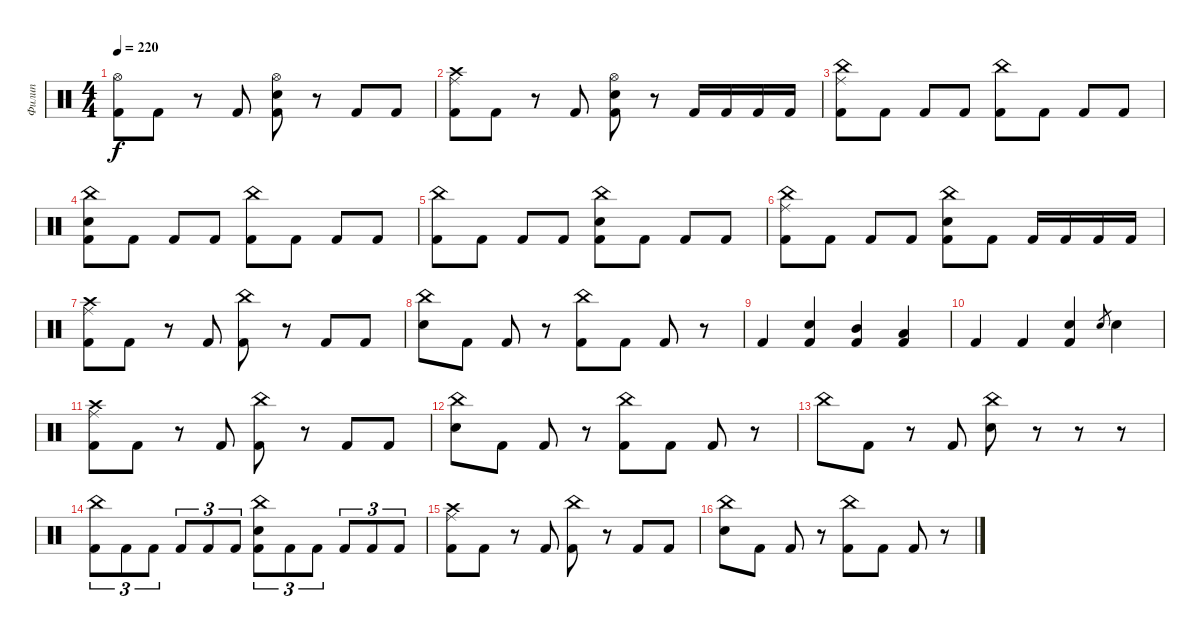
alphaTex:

\track ("Филип" "Филип") {instrument percussion}
\staff {score}
\articulation defaults
\ts (4 4)
\tempo 220
\clef neutral
\ks c
("Hi-Hat (open)" "Kick (hit) 2").8{dy f} "Kick (hit) 2".8 r.8 "Kick (hit) 2".8 ("Hi-Hat (open)" "Electric Snare (hit)" "Kick (hit) 2").8 r.8 "Kick (hit) 2".8 "Kick (hit) 2".8 |
("Ride (middle)" "Crash high (hit)" "Kick (hit) 2").8 "Kick (hit) 2".8 r.8 "Kick (hit) 2".8 ("Hi-Hat (open)" "Electric Snare (hit)" "Kick (hit) 2").8 r.8 "Kick (hit) 2".16 "Kick (hit) 2".16 "Kick (hit) 2".16 "Kick (hit) 2".16 |
("Ride (middle)" "China (hit)" "Kick (hit) 2").8 "Kick (hit) 2".8 "Kick (hit) 2".8 "Kick (hit) 2".8 ("China (hit)" "Kick (hit) 2").8 "Kick (hit) 2".8 "Kick (hit) 2".8 "Kick (hit) 2".8 |
("Kick (hit) 2" "China (hit)" "Electric Snare (hit)").8 "Kick (hit) 2".8 "Kick (hit) 2".8 "Kick (hit) 2".8 ("China (hit)" "Kick (hit) 2").8 "Kick (hit) 2".8 "Kick (hit) 2".8 "Kick (hit) 2".8 |
("China (hit)" "Kick (hit) 2").8 "Kick (hit) 2".8 "Kick (hit) 2".8 "Kick (hit) 2".8 ("China (hit)" "Electric Snare (hit)" "Kick (hit) 2").8 "Kick (hit) 2".8 "Kick (hit) 2".8 "Kick (hit) 2".8 |
("Ride (middle)" "China (hit)" "Kick (hit) 2").8 "Kick (hit) 2".8 "Kick (hit) 2".8 "Kick (hit) 2".8 ("China (hit)" "Electric Snare (hit)" "Kick (hit) 2").8 "Kick (hit) 2".8 "Kick (hit) 2".16 "Kick (hit) 2".16 "Kick (hit) 2".16 "Kick (hit) 2".16 |
("Ride (middle)" "Crash high (hit)" "Kick (hit) 2").8 "Kick (hit) 2".8 r.8 "Kick (hit) 2".8 ("China (hit)" "Kick (hit) 2").8 r.8 "Kick (hit) 2".8 "Kick (hit) 2".8 |
("China (hit)" "Electric Snare (hit)").8 "Kick (hit) 2".8 "Kick (hit) 2".8 r.8 ("China (hit)" "Kick (hit) 2").8 "Kick (hit) 2".8 "Kick (hit) 2".8 r.8 |
"Kick (hit) 2".4 ("Electric Snare (hit)" "Kick (hit) 2").4 ("Mid Tom (hit)" "Kick (hit) 2").4 ("Low Tom (hit)" "Kick (hit) 2").4 |
"Kick (hit) 2".4 "Kick (hit) 2".4 ("Electric Snare (hit)" "Kick (hit) 2").4 "Electric Snare (hit)".8{gr} "Electric Snare (hit)".4 |
("Ride (middle)" "Crash high (hit)" "Kick (hit) 2").8 "Kick (hit) 2".8 r.8 "Kick (hit) 2".8 ("China (hit)" "Kick (hit) 2").8 r.8 "Kick (hit) 2".8 "Kick (hit) 2".8 |
("China (hit)" "Electric Snare (hit)").8 "Kick (hit) 2".8 "Kick (hit) 2".8 r.8 ("China (hit)" "Kick (hit) 2").8 "Kick (hit) 2".8 "Kick (hit) 2".8 r.8 |
"China (hit)".8 "Kick (hit) 2".8 r.8 "Kick (hit) 2".8 ("China (hit)" "Electric Snare (hit)").8 r.8 r.8 r.8 |
("China (hit)" "Kick (hit) 2").8{tu (3 2)} "Kick (hit) 2".8{tu (3 2)} "Kick (hit) 2".8{tu (3 2)} "Kick (hit) 2".8{tu (3 2)} "Kick (hit) 2".8{tu (3 2)} "Kick (hit) 2".8{tu (3 2)} ("China (hit)" "Electric Snare (hit)" "Kick (hit) 2").8{tu (3 2)} "Kick (hit) 2".8{tu (3 2)} "Kick (hit) 2".8{tu (3 2)} "Kick (hit) 2".8{tu (3 2)} "Kick (hit) 2".8{tu (3 2)} "Kick (hit) 2".8{tu (3 2)} |
("Ride (middle)" "Crash high (hit)" "Kick (hit) 2").8 "Kick (hit) 2".8 r.8 "Kick (hit) 2".8 ("China (hit)" "Kick (hit) 2").8 r.8 "Kick (hit) 2".8 "Kick (hit) 2".8 |
("China (hit)" "Electric Snare (hit)").8 "Kick (hit) 2".8 "Kick (hit) 2".8 r.8 ("China (hit)" "Kick (hit) 2").8 "Kick (hit) 2".8 "Kick (hit) 2".8 r.8
